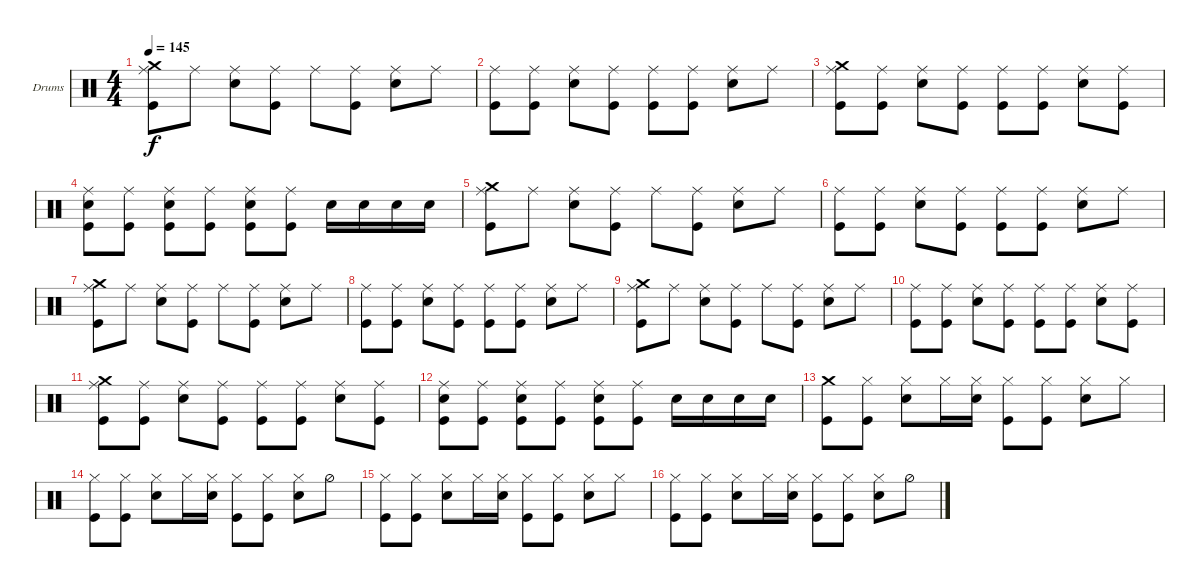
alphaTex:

\defaultSystemsLayout 4
\bracketExtendMode groupsimilarinstruments
\firstSystemTrackNameOrientation horizontal
\otherSystemsTrackNameOrientation horizontal
\track ("Drumkit" "Drums") {instrument percussion}
\staff {score}
\articulation defaults
\ts (4 4)
\tempo 145
\clef neutral
\ks c
("Kick (hit)" "Ride (middle)" "Crash medium (hit)").8{dy f} "Ride (middle)".8 ("Snare (hit) 2" "Ride (middle)").8 ("Kick (hit)" "Ride (middle)").8 "Ride (middle)".8 ("Kick (hit)" "Ride (middle)").8 ("Snare (hit) 2" "Ride (middle)").8 "Ride (middle)".8 |
("Kick (hit)" "Ride (middle)").8 ("Kick (hit)" "Ride (middle)").8 ("Snare (hit) 2" "Ride (middle)").8 ("Kick (hit)" "Ride (middle)").8 ("Kick (hit)" "Ride (middle)").8 ("Kick (hit)" "Ride (middle)").8 ("Snare (hit) 2" "Ride (middle)").8 "Ride (middle)".8 |
("Crash medium (hit)" "Kick (hit)" "Ride (middle)").8 ("Ride (middle)" "Kick (hit)").8 ("Snare (hit) 2" "Ride (middle)").8 ("Kick (hit)" "Ride (middle)").8 ("Ride (middle)" "Kick (hit)").8 ("Kick (hit)" "Ride (middle)").8 ("Snare (hit) 2" "Ride (middle)").8 ("Ride (middle)" "Kick (hit)").8 |
("Kick (hit)" "Snare (hit) 2" "Ride (middle)").8 ("Kick (hit)" "Ride (middle)").8 ("Kick (hit)" "Snare (hit) 2" "Ride (middle)").8 ("Kick (hit)" "Ride (middle)").8 ("Kick (hit)" "Snare (hit) 2" "Ride (middle)").8 ("Kick (hit)" "Ride (middle)").8 "Snare (hit) 2".16 "Snare (hit) 2".16 "Snare (hit) 2".16 "Snare (hit) 2".16 |
("Kick (hit)" "Ride (middle)" "Crash medium (hit)").8 "Ride (middle)".8 ("Snare (hit) 2" "Ride (middle)").8 ("Kick (hit)" "Ride (middle)").8 "Ride (middle)".8 ("Kick (hit)" "Ride (middle)").8 ("Snare (hit) 2" "Ride (middle)").8 "Ride (middle)".8 |
("Kick (hit)" "Ride (middle)").8 ("Kick (hit)" "Ride (middle)").8 ("Snare (hit) 2" "Ride (middle)").8 ("Kick (hit)" "Ride (middle)").8 ("Kick (hit)" "Ride (middle)").8 ("Kick (hit)" "Ride (middle)").8 ("Snare (hit) 2" "Ride (middle)").8 "Ride (middle)".8 |
("Crash medium (hit)" "Kick (hit)" "Ride (middle)").8 "Ride (middle)".8 ("Snare (hit) 2" "Ride (middle)").8 ("Kick (hit)" "Ride (middle)").8 "Ride (middle)".8 ("Kick (hit)" "Ride (middle)").8 ("Snare (hit) 2" "Ride (middle)").8 "Ride (middle)".8 |
("Kick (hit)" "Ride (middle)").8 ("Kick (hit)" "Ride (middle)").8 ("Snare (hit) 2" "Ride (middle)").8 ("Kick (hit)" "Ride (middle)").8 ("Kick (hit)" "Ride (middle)").8 ("Kick (hit)" "Ride (middle)").8 ("Snare (hit) 2" "Ride (middle)").8 "Ride (middle)".8 |
("Kick (hit)" "Ride (middle)" "Crash medium (hit)").8 "Ride (middle)".8 ("Snare (hit) 2" "Ride (middle)").8 ("Kick (hit)" "Ride (middle)").8 "Ride (middle)".8 ("Kick (hit)" "Ride (middle)").8 ("Snare (hit) 2" "Ride (middle)").8 "Ride (middle)".8 |
("Kick (hit)" "Ride (middle)").8 ("Kick (hit)" "Ride (middle)").8 ("Snare (hit) 2" "Ride (middle)").8 ("Kick (hit)" "Ride (middle)").8 ("Kick (hit)" "Ride (middle)").8 ("Kick (hit)" "Ride (middle)").8 ("Snare (hit) 2" "Ride (middle)").8 ("Ride (middle)" "Kick (hit)").8 |
("Crash medium (hit)" "Kick (hit)" "Ride (middle)").8 ("Ride (middle)" "Kick (hit)").8 ("Snare (hit) 2" "Ride (middle)").8 ("Kick (hit)" "Ride (middle)").8 ("Ride (middle)" "Kick (hit)").8 ("Kick (hit)" "Ride (middle)").8 ("Snare (hit) 2" "Ride (middle)").8 ("Ride (middle)" "Kick (hit)").8 |
("Kick (hit)" "Snare (hit) 2" "Ride (middle)").8 ("Kick (hit)" "Ride (middle)").8 ("Kick (hit)" "Snare (hit) 2" "Ride (middle)").8 ("Kick (hit)" "Ride (middle)").8 ("Kick (hit)" "Snare (hit) 2" "Ride (middle)").8 ("Kick (hit)" "Ride (middle)").8 "Snare (hit) 2".16 "Snare (hit) 2".16 "Snare (hit) 2".16 "Snare (hit) 2".16 |
("Kick (hit)" "Crash medium (hit)").8 ("Kick (hit)" "Hi-Hat (closed)").8 ("Snare (hit) 2" "Hi-Hat (closed)").8 "Hi-Hat (closed)".16 ("Snare (hit) 2" "Hi-Hat (closed)").16 ("Kick (hit)" "Hi-Hat (closed)").8 ("Kick (hit)" "Hi-Hat (closed)").8 ("Snare (hit) 2" "Hi-Hat (closed)").8 "Hi-Hat (closed)".8 |
("Kick (hit)" "Hi-Hat (closed)").8 ("Kick (hit)" "Hi-Hat (closed)").8 ("Snare (hit) 2" "Hi-Hat (closed)").8 "Hi-Hat (closed)".16 ("Snare (hit) 2" "Hi-Hat (closed)").16 ("Kick (hit)" "Hi-Hat (closed)").8 ("Kick (hit)" "Hi-Hat (closed)").8 ("Snare (hit) 2" "Hi-Hat (closed)").8 "Hi-Hat (half)".8 |
("Kick (hit)" "Hi-Hat (closed)").8 ("Kick (hit)" "Hi-Hat (closed)").8 ("Snare (hit) 2" "Hi-Hat (closed)").8 "Hi-Hat (closed)".16 ("Snare (hit) 2" "Hi-Hat (closed)").16 ("Kick (hit)" "Hi-Hat (closed)").8 ("Kick (hit)" "Hi-Hat (closed)").8 ("Snare (hit) 2" "Hi-Hat (closed)").8 "Hi-Hat (closed)".8 |
("Kick (hit)" "Hi-Hat (closed)").8 ("Kick (hit)" "Hi-Hat (closed)").8 ("Snare (hit) 2" "Hi-Hat (closed)").8 "Hi-Hat (closed)".16 ("Snare (hit) 2" "Hi-Hat (closed)").16 ("Kick (hit)" "Hi-Hat (closed)").8 ("Kick (hit)" "Hi-Hat (closed)").8 ("Snare (hit) 2" "Hi-Hat (closed)").8 "Hi-Hat (half)".8
